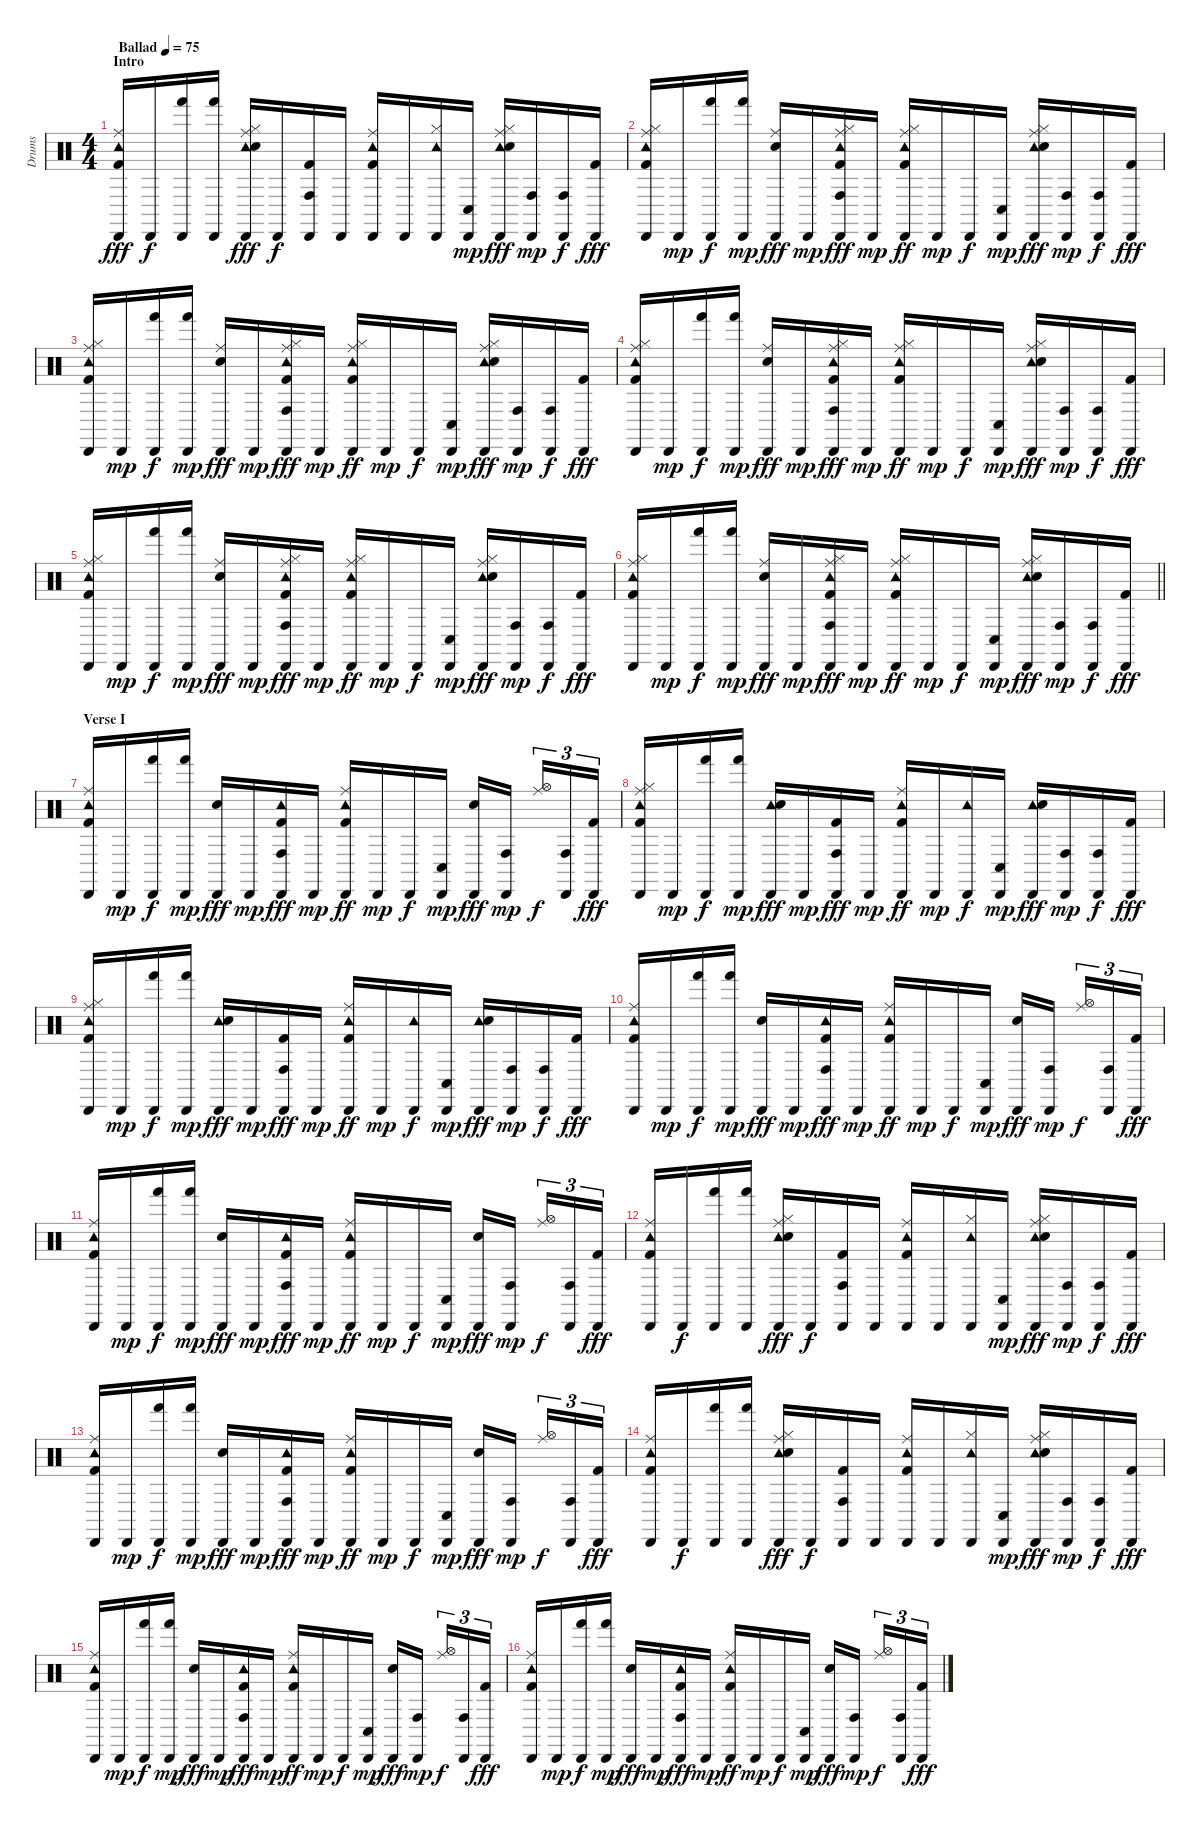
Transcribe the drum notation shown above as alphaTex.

\track ("Drums" "Drums") {instrument percussion}
\staff {score}
\articulation defaults
\ts (4 4)
\section ("" "Intro")
\tempo (75 "Ballad")
\clef neutral
\ks c
("Ride (middle)" "Tambourine (hit)" "Kick (hit) 2" "Cabasa (hit)").16{dy fff} "Cabasa (hit)".16{dy f} ("Hand (hit)" "Cabasa (hit)").16 ("Hand (hit)" "Cabasa (hit)").16 ("Cabasa (hit)" "Hi-Hat (closed)" "Tambourine (hit)" "Snare (hit) 2" "Ride (middle)").16{dy fff} "Cabasa (hit)".16{dy f} ("Conga high (hit)" "Kick (hit) 2" "Cabasa (hit)").16 "Cabasa (hit)".16 ("Ride (middle)" "Tambourine (hit)" "Kick (hit) 2" "Cabasa (hit)").16 "Cabasa (hit)".16 ("Cabasa (hit)" "Hi-Hat (closed)" "Tambourine (hit)").16 ("Cabasa (hit)" "Conga low (hit)").16{dy mp} ("Cabasa (hit)" "Hi-Hat (closed)" "Tambourine (hit)" "Snare (hit) 2" "Ride (middle)").16{dy fff} ("Cabasa (hit)" "Conga high (hit)").16{dy mp} ("Cabasa (hit)" "Conga high (hit)").16{dy f} ("Cabasa (hit)" "Kick (hit) 2").16{dy fff} |
("Cabasa (hit)" "Hi-Hat (closed)" "Tambourine (hit)" "Ride (middle)" "Kick (hit) 2").16 "Cabasa (hit)".16{dy mp} ("Cabasa (hit)" "Hand (hit)").16{dy f} ("Cabasa (hit)" "Hand (hit)").16{dy mp} ("Cabasa (hit)" "Snare (hit) 2" "Ride (middle)").16{dy fff} "Cabasa (hit)".16{dy mp} ("Cabasa (hit)" "Conga high (hit)" "Hi-Hat (closed)" "Tambourine (hit)" "Kick (hit) 2" "Ride (middle)").16{dy fff} "Cabasa (hit)".16{dy mp} ("Tambourine (hit)" "Kick (hit) 2" "Ride (middle)" "Cabasa (hit)" "Hi-Hat (closed)").16{dy ff} "Cabasa (hit)".16{dy mp} "Cabasa (hit)".16{dy f} ("Cabasa (hit)" "Conga low (hit)").16{dy mp} ("Cabasa (hit)" "Hi-Hat (closed)" "Tambourine (hit)" "Snare (hit) 2" "Ride (middle)").16{dy fff} ("Cabasa (hit)" "Conga high (hit)").16{dy mp} ("Cabasa (hit)" "Conga high (hit)").16{dy f} ("Cabasa (hit)" "Kick (hit) 2").16{dy fff} |
("Cabasa (hit)" "Hi-Hat (closed)" "Tambourine (hit)" "Ride (middle)" "Kick (hit) 2").16 "Cabasa (hit)".16{dy mp} ("Cabasa (hit)" "Hand (hit)").16{dy f} ("Cabasa (hit)" "Hand (hit)").16{dy mp} ("Cabasa (hit)" "Snare (hit) 2" "Ride (middle)").16{dy fff} "Cabasa (hit)".16{dy mp} ("Cabasa (hit)" "Conga high (hit)" "Hi-Hat (closed)" "Tambourine (hit)" "Kick (hit) 2" "Ride (middle)").16{dy fff} "Cabasa (hit)".16{dy mp} ("Tambourine (hit)" "Kick (hit) 2" "Ride (middle)" "Cabasa (hit)" "Hi-Hat (closed)").16{dy ff} "Cabasa (hit)".16{dy mp} "Cabasa (hit)".16{dy f} ("Cabasa (hit)" "Conga low (hit)").16{dy mp} ("Cabasa (hit)" "Hi-Hat (closed)" "Tambourine (hit)" "Snare (hit) 2" "Ride (middle)").16{dy fff} ("Cabasa (hit)" "Conga high (hit)").16{dy mp} ("Cabasa (hit)" "Conga high (hit)").16{dy f} ("Cabasa (hit)" "Kick (hit) 2").16{dy fff} |
("Cabasa (hit)" "Hi-Hat (closed)" "Tambourine (hit)" "Ride (middle)" "Kick (hit) 2").16 "Cabasa (hit)".16{dy mp} ("Cabasa (hit)" "Hand (hit)").16{dy f} ("Cabasa (hit)" "Hand (hit)").16{dy mp} ("Cabasa (hit)" "Snare (hit) 2" "Ride (middle)").16{dy fff} "Cabasa (hit)".16{dy mp} ("Cabasa (hit)" "Conga high (hit)" "Hi-Hat (closed)" "Tambourine (hit)" "Kick (hit) 2" "Ride (middle)").16{dy fff} "Cabasa (hit)".16{dy mp} ("Tambourine (hit)" "Kick (hit) 2" "Ride (middle)" "Cabasa (hit)" "Hi-Hat (closed)").16{dy ff} "Cabasa (hit)".16{dy mp} "Cabasa (hit)".16{dy f} ("Cabasa (hit)" "Conga low (hit)").16{dy mp} ("Cabasa (hit)" "Hi-Hat (closed)" "Tambourine (hit)" "Snare (hit) 2" "Ride (middle)").16{dy fff} ("Cabasa (hit)" "Conga high (hit)").16{dy mp} ("Cabasa (hit)" "Conga high (hit)").16{dy f} ("Cabasa (hit)" "Kick (hit) 2").16{dy fff} |
("Cabasa (hit)" "Hi-Hat (closed)" "Tambourine (hit)" "Ride (middle)" "Kick (hit) 2").16 "Cabasa (hit)".16{dy mp} ("Cabasa (hit)" "Hand (hit)").16{dy f} ("Cabasa (hit)" "Hand (hit)").16{dy mp} ("Cabasa (hit)" "Snare (hit) 2" "Ride (middle)").16{dy fff} "Cabasa (hit)".16{dy mp} ("Cabasa (hit)" "Conga high (hit)" "Hi-Hat (closed)" "Tambourine (hit)" "Kick (hit) 2" "Ride (middle)").16{dy fff} "Cabasa (hit)".16{dy mp} ("Tambourine (hit)" "Kick (hit) 2" "Ride (middle)" "Cabasa (hit)" "Hi-Hat (closed)").16{dy ff} "Cabasa (hit)".16{dy mp} "Cabasa (hit)".16{dy f} ("Cabasa (hit)" "Conga low (hit)").16{dy mp} ("Cabasa (hit)" "Hi-Hat (closed)" "Tambourine (hit)" "Snare (hit) 2" "Ride (middle)").16{dy fff} ("Cabasa (hit)" "Conga high (hit)").16{dy mp} ("Cabasa (hit)" "Conga high (hit)").16{dy f} ("Cabasa (hit)" "Kick (hit) 2").16{dy fff} |
\barLineRight lightlight
("Cabasa (hit)" "Hi-Hat (closed)" "Tambourine (hit)" "Ride (middle)" "Kick (hit) 2").16 "Cabasa (hit)".16{dy mp} ("Cabasa (hit)" "Hand (hit)").16{dy f} ("Cabasa (hit)" "Hand (hit)").16{dy mp} ("Cabasa (hit)" "Snare (hit) 2" "Ride (middle)").16{dy fff} "Cabasa (hit)".16{dy mp} ("Cabasa (hit)" "Conga high (hit)" "Hi-Hat (closed)" "Tambourine (hit)" "Kick (hit) 2" "Ride (middle)").16{dy fff} "Cabasa (hit)".16{dy mp} ("Tambourine (hit)" "Kick (hit) 2" "Ride (middle)" "Cabasa (hit)" "Hi-Hat (closed)").16{dy ff} "Cabasa (hit)".16{dy mp} "Cabasa (hit)".16{dy f} ("Cabasa (hit)" "Conga low (hit)").16{dy mp} ("Cabasa (hit)" "Hi-Hat (closed)" "Tambourine (hit)" "Snare (hit) 2" "Ride (middle)").16{dy fff} ("Cabasa (hit)" "Conga high (hit)").16{dy mp} ("Cabasa (hit)" "Conga high (hit)").16{dy f} ("Cabasa (hit)" "Kick (hit) 2").16{dy fff} |
\section ("" "Verse I")
("Cabasa (hit)" "Tambourine (hit)" "Kick (hit) 2" "Ride (middle)").16 "Cabasa (hit)".16{dy mp} ("Cabasa (hit)" "Hand (hit)").16{dy f} ("Cabasa (hit)" "Hand (hit)").16{dy mp} ("Cabasa (hit)" "Snare (hit) 2").16{dy fff} "Cabasa (hit)".16{dy mp} ("Cabasa (hit)" "Conga high (hit)" "Tambourine (hit)" "Kick (hit) 2").16{dy fff} "Cabasa (hit)".16{dy mp} ("Tambourine (hit)" "Kick (hit) 2" "Ride (middle)" "Cabasa (hit)").16{dy ff} "Cabasa (hit)".16{dy mp} "Cabasa (hit)".16{dy f} ("Cabasa (hit)" "Conga low (hit)").16{dy mp} ("Cabasa (hit)" "Snare (hit) 2").16{dy fff} ("Cabasa (hit)" "Conga high (hit)").16{dy mp beam splitsecondary} ("Ride (middle)" "Hi-Hat (open)").16{tu (3 2) dy f} ("Cabasa (hit)" "Conga high (hit)").16{tu (3 2)} ("Cabasa (hit)" "Kick (hit) 2").16{tu (3 2) dy fff} |
("Cabasa (hit)" "Tambourine (hit)" "Kick (hit) 2" "Ride (middle)" "Hi-Hat (closed)").16 "Cabasa (hit)".16{dy mp} ("Cabasa (hit)" "Hand (hit)").16{dy f} ("Cabasa (hit)" "Hand (hit)").16{dy mp} ("Cabasa (hit)" "Tambourine (hit)" "Snare (hit) 2").16{dy fff} "Cabasa (hit)".16{dy mp} ("Cabasa (hit)" "Conga high (hit)" "Kick (hit) 2").16{dy fff} "Cabasa (hit)".16{dy mp} ("Tambourine (hit)" "Kick (hit) 2" "Ride (middle)" "Cabasa (hit)").16{dy ff} "Cabasa (hit)".16{dy mp} ("Cabasa (hit)" "Tambourine (hit)").16{dy f} ("Cabasa (hit)" "Conga low (hit)").16{dy mp} ("Cabasa (hit)" "Tambourine (hit)" "Snare (hit) 2").16{dy fff} ("Cabasa (hit)" "Conga high (hit)").16{dy mp} ("Cabasa (hit)" "Conga high (hit)").16{dy f} ("Cabasa (hit)" "Kick (hit) 2").16{dy fff} |
("Cabasa (hit)" "Tambourine (hit)" "Kick (hit) 2" "Ride (middle)" "Hi-Hat (closed)").16 "Cabasa (hit)".16{dy mp} ("Cabasa (hit)" "Hand (hit)").16{dy f} ("Cabasa (hit)" "Hand (hit)").16{dy mp} ("Cabasa (hit)" "Tambourine (hit)" "Snare (hit) 2").16{dy fff} "Cabasa (hit)".16{dy mp} ("Cabasa (hit)" "Conga high (hit)" "Kick (hit) 2").16{dy fff} "Cabasa (hit)".16{dy mp} ("Tambourine (hit)" "Kick (hit) 2" "Ride (middle)" "Cabasa (hit)").16{dy ff} "Cabasa (hit)".16{dy mp} ("Cabasa (hit)" "Tambourine (hit)").16{dy f} ("Cabasa (hit)" "Conga low (hit)").16{dy mp} ("Cabasa (hit)" "Tambourine (hit)" "Snare (hit) 2").16{dy fff} ("Cabasa (hit)" "Conga high (hit)").16{dy mp} ("Cabasa (hit)" "Conga high (hit)").16{dy f} ("Cabasa (hit)" "Kick (hit) 2").16{dy fff} |
("Cabasa (hit)" "Tambourine (hit)" "Kick (hit) 2" "Ride (middle)").16 "Cabasa (hit)".16{dy mp} ("Cabasa (hit)" "Hand (hit)").16{dy f} ("Cabasa (hit)" "Hand (hit)").16{dy mp} ("Cabasa (hit)" "Snare (hit) 2").16{dy fff} "Cabasa (hit)".16{dy mp} ("Cabasa (hit)" "Conga high (hit)" "Tambourine (hit)" "Kick (hit) 2").16{dy fff} "Cabasa (hit)".16{dy mp} ("Tambourine (hit)" "Kick (hit) 2" "Ride (middle)" "Cabasa (hit)").16{dy ff} "Cabasa (hit)".16{dy mp} "Cabasa (hit)".16{dy f} ("Cabasa (hit)" "Conga low (hit)").16{dy mp} ("Cabasa (hit)" "Snare (hit) 2").16{dy fff} ("Cabasa (hit)" "Conga high (hit)").16{dy mp beam splitsecondary} ("Ride (middle)" "Hi-Hat (open)").16{tu (3 2) dy f} ("Cabasa (hit)" "Conga high (hit)").16{tu (3 2)} ("Cabasa (hit)" "Kick (hit) 2").16{tu (3 2) dy fff} |
("Cabasa (hit)" "Tambourine (hit)" "Kick (hit) 2" "Ride (middle)").16 "Cabasa (hit)".16{dy mp} ("Cabasa (hit)" "Hand (hit)").16{dy f} ("Cabasa (hit)" "Hand (hit)").16{dy mp} ("Cabasa (hit)" "Snare (hit) 2").16{dy fff} "Cabasa (hit)".16{dy mp} ("Cabasa (hit)" "Conga high (hit)" "Tambourine (hit)" "Kick (hit) 2").16{dy fff} "Cabasa (hit)".16{dy mp} ("Tambourine (hit)" "Kick (hit) 2" "Ride (middle)" "Cabasa (hit)").16{dy ff} "Cabasa (hit)".16{dy mp} "Cabasa (hit)".16{dy f} ("Cabasa (hit)" "Conga low (hit)").16{dy mp} ("Cabasa (hit)" "Snare (hit) 2").16{dy fff} ("Cabasa (hit)" "Conga high (hit)").16{dy mp beam splitsecondary} ("Ride (middle)" "Hi-Hat (open)").16{tu (3 2) dy f} ("Cabasa (hit)" "Conga high (hit)").16{tu (3 2)} ("Cabasa (hit)" "Kick (hit) 2").16{tu (3 2) dy fff} |
("Ride (middle)" "Tambourine (hit)" "Kick (hit) 2" "Cabasa (hit)").16 "Cabasa (hit)".16{dy f} ("Hand (hit)" "Cabasa (hit)").16 ("Hand (hit)" "Cabasa (hit)").16 ("Cabasa (hit)" "Hi-Hat (closed)" "Tambourine (hit)" "Snare (hit) 2" "Ride (middle)").16{dy fff} "Cabasa (hit)".16{dy f} ("Conga high (hit)" "Kick (hit) 2" "Cabasa (hit)").16 "Cabasa (hit)".16 ("Ride (middle)" "Tambourine (hit)" "Kick (hit) 2" "Cabasa (hit)").16 "Cabasa (hit)".16 ("Cabasa (hit)" "Hi-Hat (closed)" "Tambourine (hit)").16 ("Cabasa (hit)" "Conga low (hit)").16{dy mp} ("Cabasa (hit)" "Hi-Hat (closed)" "Tambourine (hit)" "Snare (hit) 2" "Ride (middle)").16{dy fff} ("Cabasa (hit)" "Conga high (hit)").16{dy mp} ("Cabasa (hit)" "Conga high (hit)").16{dy f} ("Cabasa (hit)" "Kick (hit) 2").16{dy fff} |
("Cabasa (hit)" "Tambourine (hit)" "Kick (hit) 2" "Ride (middle)").16 "Cabasa (hit)".16{dy mp} ("Cabasa (hit)" "Hand (hit)").16{dy f} ("Cabasa (hit)" "Hand (hit)").16{dy mp} ("Cabasa (hit)" "Snare (hit) 2").16{dy fff} "Cabasa (hit)".16{dy mp} ("Cabasa (hit)" "Conga high (hit)" "Tambourine (hit)" "Kick (hit) 2").16{dy fff} "Cabasa (hit)".16{dy mp} ("Tambourine (hit)" "Kick (hit) 2" "Ride (middle)" "Cabasa (hit)").16{dy ff} "Cabasa (hit)".16{dy mp} "Cabasa (hit)".16{dy f} ("Cabasa (hit)" "Conga low (hit)").16{dy mp} ("Cabasa (hit)" "Snare (hit) 2").16{dy fff} ("Cabasa (hit)" "Conga high (hit)").16{dy mp beam splitsecondary} ("Ride (middle)" "Hi-Hat (open)").16{tu (3 2) dy f} ("Cabasa (hit)" "Conga high (hit)").16{tu (3 2)} ("Cabasa (hit)" "Kick (hit) 2").16{tu (3 2) dy fff} |
("Ride (middle)" "Tambourine (hit)" "Kick (hit) 2" "Cabasa (hit)").16 "Cabasa (hit)".16{dy f} ("Hand (hit)" "Cabasa (hit)").16 ("Hand (hit)" "Cabasa (hit)").16 ("Cabasa (hit)" "Hi-Hat (closed)" "Tambourine (hit)" "Snare (hit) 2" "Ride (middle)").16{dy fff} "Cabasa (hit)".16{dy f} ("Conga high (hit)" "Kick (hit) 2" "Cabasa (hit)").16 "Cabasa (hit)".16 ("Ride (middle)" "Tambourine (hit)" "Kick (hit) 2" "Cabasa (hit)").16 "Cabasa (hit)".16 ("Cabasa (hit)" "Hi-Hat (closed)" "Tambourine (hit)").16 ("Cabasa (hit)" "Conga low (hit)").16{dy mp} ("Cabasa (hit)" "Hi-Hat (closed)" "Tambourine (hit)" "Snare (hit) 2" "Ride (middle)").16{dy fff} ("Cabasa (hit)" "Conga high (hit)").16{dy mp} ("Cabasa (hit)" "Conga high (hit)").16{dy f} ("Cabasa (hit)" "Kick (hit) 2").16{dy fff} |
("Cabasa (hit)" "Tambourine (hit)" "Kick (hit) 2" "Ride (middle)").16 "Cabasa (hit)".16{dy mp} ("Cabasa (hit)" "Hand (hit)").16{dy f} ("Cabasa (hit)" "Hand (hit)").16{dy mp} ("Cabasa (hit)" "Snare (hit) 2").16{dy fff} "Cabasa (hit)".16{dy mp} ("Cabasa (hit)" "Conga high (hit)" "Tambourine (hit)" "Kick (hit) 2").16{dy fff} "Cabasa (hit)".16{dy mp} ("Tambourine (hit)" "Kick (hit) 2" "Ride (middle)" "Cabasa (hit)").16{dy ff} "Cabasa (hit)".16{dy mp} "Cabasa (hit)".16{dy f} ("Cabasa (hit)" "Conga low (hit)").16{dy mp} ("Cabasa (hit)" "Snare (hit) 2").16{dy fff} ("Cabasa (hit)" "Conga high (hit)").16{dy mp beam splitsecondary} ("Ride (middle)" "Hi-Hat (open)").16{tu (3 2) dy f} ("Cabasa (hit)" "Conga high (hit)").16{tu (3 2)} ("Cabasa (hit)" "Kick (hit) 2").16{tu (3 2) dy fff} |
("Cabasa (hit)" "Tambourine (hit)" "Kick (hit) 2" "Ride (middle)").16 "Cabasa (hit)".16{dy mp} ("Cabasa (hit)" "Hand (hit)").16{dy f} ("Cabasa (hit)" "Hand (hit)").16{dy mp} ("Cabasa (hit)" "Snare (hit) 2").16{dy fff} "Cabasa (hit)".16{dy mp} ("Cabasa (hit)" "Conga high (hit)" "Tambourine (hit)" "Kick (hit) 2").16{dy fff} "Cabasa (hit)".16{dy mp} ("Tambourine (hit)" "Kick (hit) 2" "Ride (middle)" "Cabasa (hit)").16{dy ff} "Cabasa (hit)".16{dy mp} "Cabasa (hit)".16{dy f} ("Cabasa (hit)" "Conga low (hit)").16{dy mp} ("Cabasa (hit)" "Snare (hit) 2").16{dy fff} ("Cabasa (hit)" "Conga high (hit)").16{dy mp beam splitsecondary} ("Ride (middle)" "Hi-Hat (open)").16{tu (3 2) dy f} ("Cabasa (hit)" "Conga high (hit)").16{tu (3 2)} ("Cabasa (hit)" "Kick (hit) 2").16{tu (3 2) dy fff}
